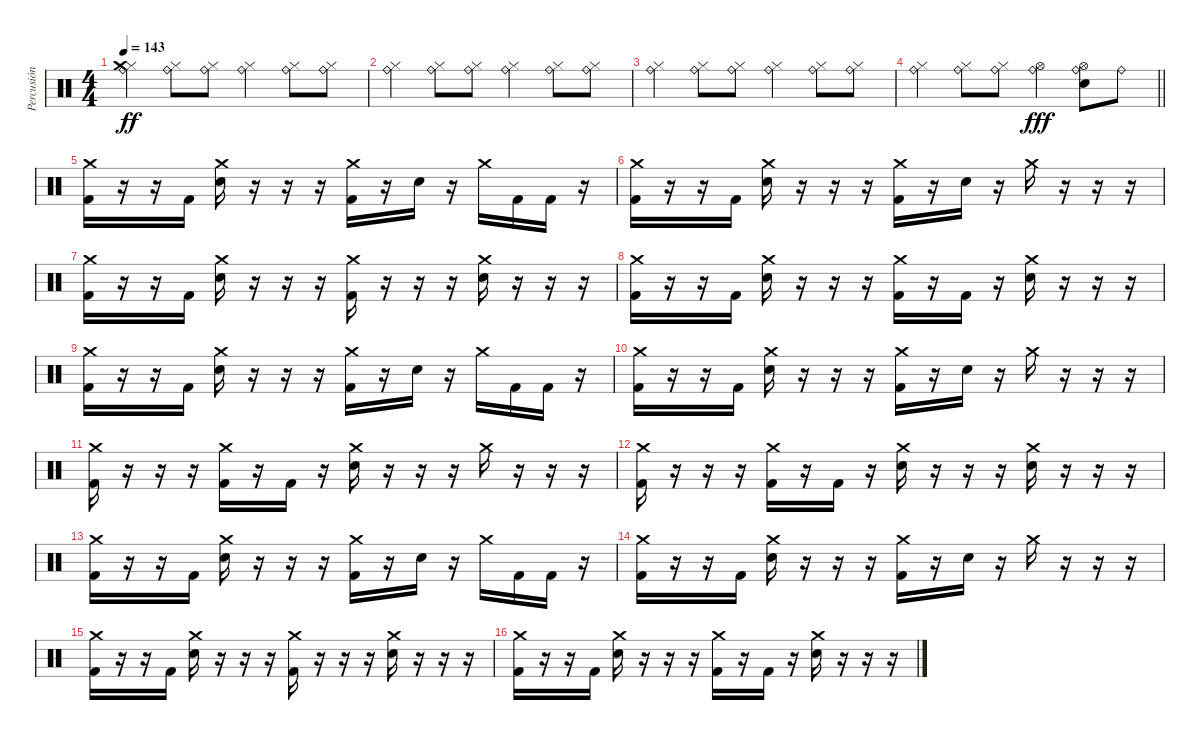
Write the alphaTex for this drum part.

\track ("Percusión" "Percusión") {instrument percussion}
\staff {score}
\articulation defaults
\ts (4 4)
\tempo 143
\clef neutral
\ks c
("Ride (bell)" "Hi-Hat (closed)" "Crash medium (hit)").4{dy ff} ("Ride (bell)" "Hi-Hat (closed)").8 ("Ride (bell)" "Hi-Hat (closed)").8 ("Ride (bell)" "Hi-Hat (closed)").4 ("Ride (bell)" "Hi-Hat (closed)").8 ("Ride (bell)" "Hi-Hat (closed)").8 |
("Ride (bell)" "Hi-Hat (closed)").4 ("Ride (bell)" "Hi-Hat (closed)").8 ("Ride (bell)" "Hi-Hat (closed)").8 ("Ride (bell)" "Hi-Hat (closed)").4 ("Ride (bell)" "Hi-Hat (closed)").8 ("Ride (bell)" "Hi-Hat (closed)").8 |
("Ride (bell)" "Hi-Hat (closed)").4 ("Ride (bell)" "Hi-Hat (closed)").8 ("Ride (bell)" "Hi-Hat (closed)").8 ("Ride (bell)" "Hi-Hat (closed)").4 ("Ride (bell)" "Hi-Hat (closed)").8 ("Ride (bell)" "Hi-Hat (closed)").8 |
\barLineRight lightlight
("Ride (bell)" "Hi-Hat (closed)").4 ("Ride (bell)" "Hi-Hat (closed)").8 ("Ride (bell)" "Hi-Hat (closed)").8 ("Ride (bell)" "Hi-Hat (open)").4{dy fff} ("Ride (bell)" "Hi-Hat (open)" "Snare (hit) 2").8 "Ride (bell)".8 |
("Crash medium (hit)" "Kick (hit) 2").16 r.16 r.16 "Kick (hit) 2".16 ("Crash medium (hit)" "Snare (hit) 2").16 r.16 r.16 r.16 ("Crash medium (hit)" "Kick (hit) 2").16 r.16 "Snare (hit) 2".16 r.16 "Crash medium (hit)".16 "Kick (hit) 2".16 "Kick (hit) 2".16 r.16 |
("Crash medium (hit)" "Kick (hit) 2").16 r.16 r.16 "Kick (hit) 2".16 ("Crash medium (hit)" "Snare (hit) 2").16 r.16 r.16 r.16 ("Crash medium (hit)" "Kick (hit) 2").16 r.16 "Snare (hit) 2".16 r.16 "Crash medium (hit)".16 r.16 r.16 r.16 |
("Crash medium (hit)" "Kick (hit) 2").16 r.16 r.16 "Kick (hit) 2".16 ("Crash medium (hit)" "Snare (hit) 2").16 r.16 r.16 r.16 ("Crash medium (hit)" "Kick (hit) 2").16 r.16 r.16 r.16 ("Crash medium (hit)" "Snare (hit) 2").16 r.16 r.16 r.16 |
("Crash medium (hit)" "Kick (hit) 2").16 r.16 r.16 "Kick (hit) 2".16 ("Crash medium (hit)" "Snare (hit) 2").16 r.16 r.16 r.16 ("Crash medium (hit)" "Kick (hit) 2").16 r.16 "Kick (hit) 2".16 r.16 ("Crash medium (hit)" "Snare (hit) 2").16 r.16 r.16 r.16 |
("Crash medium (hit)" "Kick (hit) 2").16 r.16 r.16 "Kick (hit) 2".16 ("Crash medium (hit)" "Snare (hit) 2").16 r.16 r.16 r.16 ("Crash medium (hit)" "Kick (hit) 2").16 r.16 "Snare (hit) 2".16 r.16 "Crash medium (hit)".16 "Kick (hit) 2".16 "Kick (hit) 2".16 r.16 |
("Crash medium (hit)" "Kick (hit) 2").16 r.16 r.16 "Kick (hit) 2".16 ("Crash medium (hit)" "Snare (hit) 2").16 r.16 r.16 r.16 ("Crash medium (hit)" "Kick (hit) 2").16 r.16 "Snare (hit) 2".16 r.16 "Crash medium (hit)".16 r.16 r.16 r.16 |
("Crash medium (hit)" "Kick (hit) 2").16 r.16 r.16 r.16 ("Crash medium (hit)" "Kick (hit) 2").16 r.16 "Kick (hit) 2".16 r.16 ("Crash medium (hit)" "Snare (hit) 2").16 r.16 r.16 r.16 "Crash medium (hit)".16 r.16 r.16 r.16 |
("Crash medium (hit)" "Kick (hit) 2").16 r.16 r.16 r.16 ("Crash medium (hit)" "Kick (hit) 2").16 r.16 "Kick (hit) 2".16 r.16 ("Crash medium (hit)" "Snare (hit) 2").16 r.16 r.16 r.16 ("Crash medium (hit)" "Snare (hit) 2").16 r.16 r.16 r.16 |
("Crash medium (hit)" "Kick (hit) 2").16 r.16 r.16 "Kick (hit) 2".16 ("Crash medium (hit)" "Snare (hit) 2").16 r.16 r.16 r.16 ("Crash medium (hit)" "Kick (hit) 2").16 r.16 "Snare (hit) 2".16 r.16 "Crash medium (hit)".16 "Kick (hit) 2".16 "Kick (hit) 2".16 r.16 |
("Crash medium (hit)" "Kick (hit) 2").16 r.16 r.16 "Kick (hit) 2".16 ("Crash medium (hit)" "Snare (hit) 2").16 r.16 r.16 r.16 ("Crash medium (hit)" "Kick (hit) 2").16 r.16 "Snare (hit) 2".16 r.16 "Crash medium (hit)".16 r.16 r.16 r.16 |
("Crash medium (hit)" "Kick (hit) 2").16 r.16 r.16 "Kick (hit) 2".16 ("Crash medium (hit)" "Snare (hit) 2").16 r.16 r.16 r.16 ("Crash medium (hit)" "Kick (hit) 2").16 r.16 r.16 r.16 ("Crash medium (hit)" "Snare (hit) 2").16 r.16 r.16 r.16 |
("Crash medium (hit)" "Kick (hit) 2").16 r.16 r.16 "Kick (hit) 2".16 ("Crash medium (hit)" "Snare (hit) 2").16 r.16 r.16 r.16 ("Crash medium (hit)" "Kick (hit) 2").16 r.16 "Kick (hit) 2".16 r.16 ("Crash medium (hit)" "Snare (hit) 2").16 r.16 r.16 r.16
